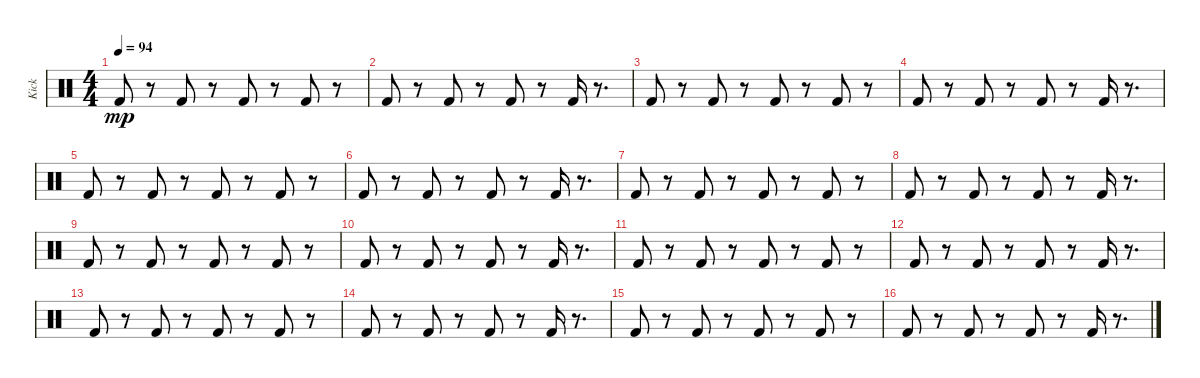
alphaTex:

\track ("Kick" "Kick") {instrument percussion}
\staff {score}
\articulation defaults
\ts (4 4)
\tempo 94
\clef neutral
\ks c "Kick (hit) 2".8{dy mp}
r.8 "Kick (hit) 2".8 r.8 "Kick (hit) 2".8 r.8 "Kick (hit) 2".8 r.8 |
"Kick (hit) 2".8 r.8 "Kick (hit) 2".8 r.8 "Kick (hit) 2".8 r.8 "Kick (hit) 2".16 r.8{d} |
"Kick (hit) 2".8 r.8 "Kick (hit) 2".8 r.8 "Kick (hit) 2".8 r.8 "Kick (hit) 2".8 r.8 |
"Kick (hit) 2".8 r.8 "Kick (hit) 2".8 r.8 "Kick (hit) 2".8 r.8 "Kick (hit) 2".16 r.8{d} |
"Kick (hit) 2".8 r.8 "Kick (hit) 2".8 r.8 "Kick (hit) 2".8 r.8 "Kick (hit) 2".8 r.8 |
"Kick (hit) 2".8 r.8 "Kick (hit) 2".8 r.8 "Kick (hit) 2".8 r.8 "Kick (hit) 2".16 r.8{d} |
"Kick (hit) 2".8 r.8 "Kick (hit) 2".8 r.8 "Kick (hit) 2".8 r.8 "Kick (hit) 2".8 r.8 |
"Kick (hit) 2".8 r.8 "Kick (hit) 2".8 r.8 "Kick (hit) 2".8 r.8 "Kick (hit) 2".16 r.8{d} |
"Kick (hit) 2".8 r.8 "Kick (hit) 2".8 r.8 "Kick (hit) 2".8 r.8 "Kick (hit) 2".8 r.8 |
"Kick (hit) 2".8 r.8 "Kick (hit) 2".8 r.8 "Kick (hit) 2".8 r.8 "Kick (hit) 2".16 r.8{d} |
"Kick (hit) 2".8 r.8 "Kick (hit) 2".8 r.8 "Kick (hit) 2".8 r.8 "Kick (hit) 2".8 r.8 |
"Kick (hit) 2".8 r.8 "Kick (hit) 2".8 r.8 "Kick (hit) 2".8 r.8 "Kick (hit) 2".16 r.8{d} |
"Kick (hit) 2".8 r.8 "Kick (hit) 2".8 r.8 "Kick (hit) 2".8 r.8 "Kick (hit) 2".8 r.8 |
"Kick (hit) 2".8 r.8 "Kick (hit) 2".8 r.8 "Kick (hit) 2".8 r.8 "Kick (hit) 2".16 r.8{d} |
"Kick (hit) 2".8 r.8 "Kick (hit) 2".8 r.8 "Kick (hit) 2".8 r.8 "Kick (hit) 2".8 r.8 |
"Kick (hit) 2".8 r.8 "Kick (hit) 2".8 r.8 "Kick (hit) 2".8 r.8 "Kick (hit) 2".16 r.8{d}
